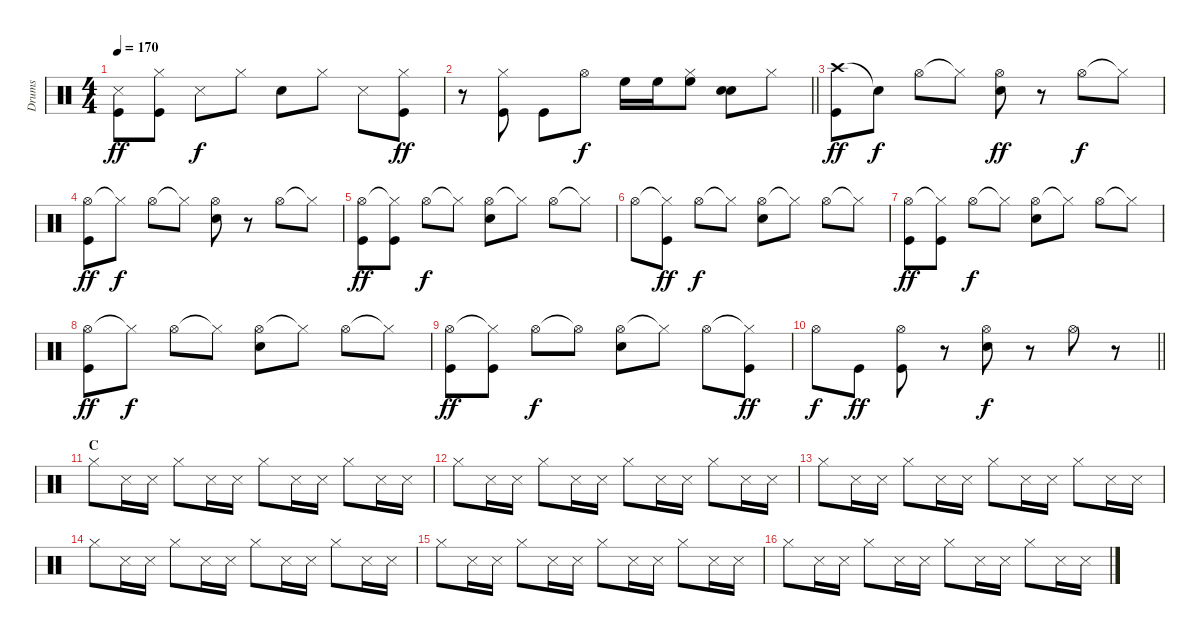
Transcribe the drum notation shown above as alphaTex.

\track ("Drums" "Drums") {instrument percussion}
\staff {score}
\articulation defaults
\ts (4 4)
\tempo 170
\clef neutral
\ks c
("Snare (side stick) 3" "Kick (hit)").8{dy ff} ("Hi-Hat (closed)" "Kick (hit)").8 "Snare (side stick) 3".8{dy f} "Hi-Hat (closed)".8 "Snare (hit) 2".8 "Hi-Hat (closed)".8 "Snare (side stick) 3".8 ("Hi-Hat (closed)" "Kick (hit)").8{dy ff} |
\barLineRight lightlight
r.8 ("Hi-Hat (closed)" "Kick (hit)").8 "Kick (hit)".8 "Hi-Hat (open)".8{dy f} "High Floor Tom (hit)".16 "High Floor Tom (hit)".16 ("Hi-Hat (closed)" "High Floor Tom (hit)").8 ("Snare (hit) 2" "Snare (hit) 2").8 "Hi-Hat (closed)".8 |
("Crash high (hit)" "Kick (hit)").8{dy ff} "Snare (hit)"{t}.8{dy f} "Hi-Hat (open)".8 "Hi-Hat (closed)"{t}.8 ("Hi-Hat (open)" "Snare (hit) 2").8{dy ff} r.8 "Hi-Hat (open)".8{dy f} "Hi-Hat (closed)"{t}.8 |
("Hi-Hat (open)" "Kick (hit)").8{dy ff} "Hi-Hat (closed)"{t}.8{dy f} "Hi-Hat (open)".8 "Hi-Hat (closed)"{t}.8 ("Hi-Hat (open)" "Snare (hit) 2").8 r.8 "Hi-Hat (open)".8 "Hi-Hat (closed)"{t}.8 |
("Hi-Hat (open)" "Kick (hit)").8{dy ff} ("Hi-Hat (closed)"{t} "Kick (hit)").8 "Hi-Hat (open)".8{dy f} "Hi-Hat (closed)"{t}.8 ("Hi-Hat (open)" "Snare (hit) 2").8 "Hi-Hat (closed)"{t}.8 "Hi-Hat (open)".8 "Hi-Hat (closed)"{t}.8 |
"Hi-Hat (open)".8 ("Hi-Hat (closed)"{t} "Kick (hit)").8{dy ff} "Hi-Hat (open)".8{dy f} "Hi-Hat (closed)"{t}.8 ("Hi-Hat (open)" "Snare (hit) 2").8 "Hi-Hat (closed)"{t}.8 "Hi-Hat (open)".8 "Hi-Hat (closed)"{t}.8 |
("Hi-Hat (open)" "Kick (hit)").8{dy ff} ("Hi-Hat (closed)"{t} "Kick (hit)").8 "Hi-Hat (open)".8{dy f} "Hi-Hat (closed)"{t}.8 ("Hi-Hat (open)" "Snare (hit) 2").8 "Hi-Hat (closed)"{t}.8 "Hi-Hat (open)".8 "Hi-Hat (closed)"{t}.8 |
("Hi-Hat (open)" "Kick (hit)").8{dy ff} "Hi-Hat (closed)"{t}.8{dy f} "Hi-Hat (open)".8 "Hi-Hat (closed)"{t}.8 ("Hi-Hat (open)" "Snare (hit) 2").8 "Hi-Hat (closed)"{t}.8 "Hi-Hat (open)".8 "Hi-Hat (closed)"{t}.8 |
("Hi-Hat (open)" "Kick (hit)").8{dy ff} ("Hi-Hat (closed)"{t} "Kick (hit)").8 "Hi-Hat (open)".8{dy f} "Hi-Hat (open)"{t}.8 ("Hi-Hat (open)" "Snare (hit) 2").8 "Hi-Hat (closed)"{t}.8 "Hi-Hat (open)".8 ("Hi-Hat (closed)"{t} "Kick (hit)").8{dy ff} |
\barLineRight lightlight "Hi-Hat (open)".8{dy f} "Kick (hit)".8{dy ff}
("Hi-Hat (open)" "Kick (hit)").8 r.8 ("Hi-Hat (open)" "Snare (hit) 2").8{dy f} r.8 "Hi-Hat (open)".8 r.8 |
\section ("" "C")
"Hi-Hat (closed)".8 "Snare (side stick) 3".16 "Snare (side stick) 3".16 "Hi-Hat (closed)".8 "Snare (side stick) 3".16 "Snare (side stick) 3".16 "Hi-Hat (closed)".8 "Snare (side stick) 3".16 "Snare (side stick) 3".16 "Hi-Hat (closed)".8 "Snare (side stick) 3".16 "Snare (side stick) 3".16 |
"Hi-Hat (closed)".8 "Snare (side stick) 3".16 "Snare (side stick) 3".16 "Hi-Hat (closed)".8 "Snare (side stick) 3".16 "Snare (side stick) 3".16 "Hi-Hat (closed)".8 "Snare (side stick) 3".16 "Snare (side stick) 3".16 "Hi-Hat (closed)".8 "Snare (side stick) 3".16 "Snare (side stick) 3".16 |
"Hi-Hat (closed)".8 "Snare (side stick) 3".16 "Snare (side stick) 3".16 "Hi-Hat (closed)".8 "Snare (side stick) 3".16 "Snare (side stick) 3".16 "Hi-Hat (closed)".8 "Snare (side stick) 3".16 "Snare (side stick) 3".16 "Hi-Hat (closed)".8 "Snare (side stick) 3".16 "Snare (side stick) 3".16 |
"Hi-Hat (closed)".8 "Snare (side stick) 3".16 "Snare (side stick) 3".16 "Hi-Hat (closed)".8 "Snare (side stick) 3".16 "Snare (side stick) 3".16 "Hi-Hat (closed)".8 "Snare (side stick) 3".16 "Snare (side stick) 3".16 "Hi-Hat (closed)".8 "Snare (side stick) 3".16 "Snare (side stick) 3".16 |
"Hi-Hat (closed)".8 "Snare (side stick) 3".16 "Snare (side stick) 3".16 "Hi-Hat (closed)".8 "Snare (side stick) 3".16 "Snare (side stick) 3".16 "Hi-Hat (closed)".8 "Snare (side stick) 3".16 "Snare (side stick) 3".16 "Hi-Hat (closed)".8 "Snare (side stick) 3".16 "Snare (side stick) 3".16 |
"Hi-Hat (closed)".8 "Snare (side stick) 3".16 "Snare (side stick) 3".16 "Hi-Hat (closed)".8 "Snare (side stick) 3".16 "Snare (side stick) 3".16 "Hi-Hat (closed)".8 "Snare (side stick) 3".16 "Snare (side stick) 3".16 "Hi-Hat (closed)".8 "Snare (side stick) 3".16 "Snare (side stick) 3".16
